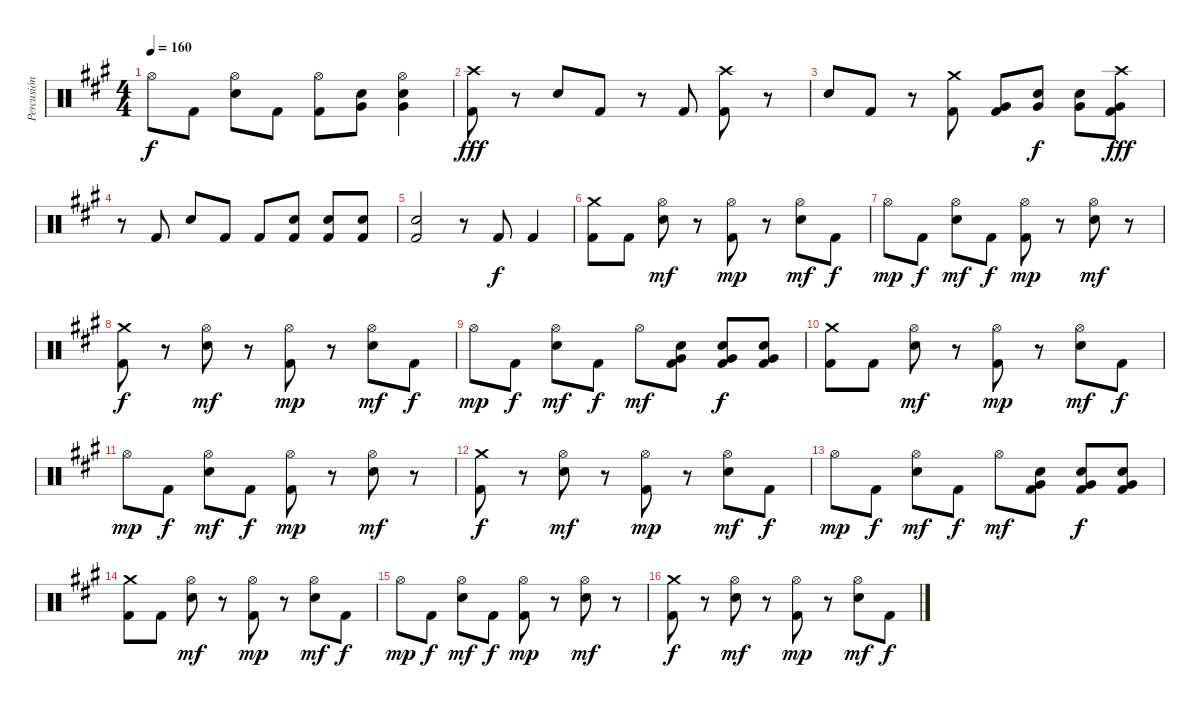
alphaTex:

\track ("Percusión" "Percusión") {instrument percussion}
\staff {score}
\articulation defaults
\ts (4 4)
\tempo 160
\clef neutral
\ks a "Hi-Hat (open)".8{dy f} "Kick (hit) 2".8
("Hi-Hat (open)" "Electric Snare (hit)").8 "Kick (hit) 2".8 ("Hi-Hat (open)" "Kick (hit) 2").8 ("Very Low Tom (hit)" "Electric Snare (hit)").8 ("Very Low Tom (hit)" "Hi-Hat (open)" "Electric Snare (hit)").4 |
("Crash high (hit)" "Kick (hit) 2").8{dy fff} r.8 "Electric Snare (hit)".8 "Kick (hit) 2".8 r.8 "Kick (hit) 2".8 ("Crash high (hit)" "Kick (hit) 2").8 r.8 |
"Electric Snare (hit)".8 "Kick (hit) 2".8 r.8 ("Crash medium (hit)" "Kick (hit) 2").8 ("Very Low Tom (hit)" "Kick (hit) 2").8 ("Very Low Tom (hit)" "Electric Snare (hit)").8{dy f} ("Very Low Tom (hit)" "Electric Snare (hit)").8 ("Crash high (hit)" "Very Low Tom (hit)" "Kick (hit) 2").8{dy fff} |
r.8 "Kick (hit) 2".8 "Electric Snare (hit)".8 "Kick (hit) 2".8 "Kick (hit) 2".8 ("Electric Snare (hit)" "Kick (hit) 2").8 ("Electric Snare (hit)" "Kick (hit) 2").8 ("Electric Snare (hit)" "Kick (hit) 2").8 |
("Electric Snare (hit)" "Kick (hit) 2").2 r.8 "Kick (hit) 2".8{dy f} "Kick (hit) 2".4 |
("Crash medium (hit)" "Kick (hit) 2").8 "Kick (hit) 2".8 ("Hi-Hat (open)" "Electric Snare (hit)").8{dy mf} r.8 ("Hi-Hat (open)" "Kick (hit) 2").8{dy mp} r.8 ("Hi-Hat (open)" "Electric Snare (hit)").8{dy mf} "Kick (hit) 2".8{dy f} |
"Hi-Hat (open)".8{dy mp} "Kick (hit) 2".8{dy f} ("Hi-Hat (open)" "Electric Snare (hit)").8{dy mf} "Kick (hit) 2".8{dy f} ("Hi-Hat (open)" "Kick (hit) 2").8{dy mp} r.8 ("Hi-Hat (open)" "Electric Snare (hit)").8{dy mf} r.8 |
("Crash medium (hit)" "Kick (hit) 2").8{dy f} r.8 ("Hi-Hat (open)" "Electric Snare (hit)").8{dy mf} r.8 ("Hi-Hat (open)" "Kick (hit) 2").8{dy mp} r.8 ("Hi-Hat (open)" "Electric Snare (hit)").8{dy mf} "Kick (hit) 2".8{dy f} |
"Hi-Hat (open)".8{dy mp} "Kick (hit) 2".8{dy f} ("Hi-Hat (open)" "Electric Snare (hit)").8{dy mf} "Kick (hit) 2".8{dy f} "Hi-Hat (open)".8{dy mf} ("Very Low Tom (hit)" "Electric Snare (hit)" "Kick (hit) 2").8 ("Very Low Tom (hit)" "Electric Snare (hit)" "Kick (hit) 2").8{dy f} ("Very Low Tom (hit)" "Electric Snare (hit)" "Kick (hit) 2").8 |
("Crash medium (hit)" "Kick (hit) 2").8 "Kick (hit) 2".8 ("Hi-Hat (open)" "Electric Snare (hit)").8{dy mf} r.8 ("Hi-Hat (open)" "Kick (hit) 2").8{dy mp} r.8 ("Hi-Hat (open)" "Electric Snare (hit)").8{dy mf} "Kick (hit) 2".8{dy f} |
"Hi-Hat (open)".8{dy mp} "Kick (hit) 2".8{dy f} ("Hi-Hat (open)" "Electric Snare (hit)").8{dy mf} "Kick (hit) 2".8{dy f} ("Hi-Hat (open)" "Kick (hit) 2").8{dy mp} r.8 ("Hi-Hat (open)" "Electric Snare (hit)").8{dy mf} r.8 |
("Crash medium (hit)" "Kick (hit) 2").8{dy f} r.8 ("Hi-Hat (open)" "Electric Snare (hit)").8{dy mf} r.8 ("Hi-Hat (open)" "Kick (hit) 2").8{dy mp} r.8 ("Hi-Hat (open)" "Electric Snare (hit)").8{dy mf} "Kick (hit) 2".8{dy f} |
"Hi-Hat (open)".8{dy mp} "Kick (hit) 2".8{dy f} ("Hi-Hat (open)" "Electric Snare (hit)").8{dy mf} "Kick (hit) 2".8{dy f} "Hi-Hat (open)".8{dy mf} ("Very Low Tom (hit)" "Electric Snare (hit)" "Kick (hit) 2").8 ("Very Low Tom (hit)" "Electric Snare (hit)" "Kick (hit) 2").8{dy f} ("Very Low Tom (hit)" "Electric Snare (hit)" "Kick (hit) 2").8 |
("Crash medium (hit)" "Kick (hit) 2").8 "Kick (hit) 2".8 ("Hi-Hat (open)" "Electric Snare (hit)").8{dy mf} r.8 ("Hi-Hat (open)" "Kick (hit) 2").8{dy mp} r.8 ("Hi-Hat (open)" "Electric Snare (hit)").8{dy mf} "Kick (hit) 2".8{dy f} |
"Hi-Hat (open)".8{dy mp} "Kick (hit) 2".8{dy f} ("Hi-Hat (open)" "Electric Snare (hit)").8{dy mf} "Kick (hit) 2".8{dy f} ("Hi-Hat (open)" "Kick (hit) 2").8{dy mp} r.8 ("Hi-Hat (open)" "Electric Snare (hit)").8{dy mf} r.8 |
("Crash medium (hit)" "Kick (hit) 2").8{dy f} r.8 ("Hi-Hat (open)" "Electric Snare (hit)").8{dy mf} r.8 ("Hi-Hat (open)" "Kick (hit) 2").8{dy mp} r.8 ("Hi-Hat (open)" "Electric Snare (hit)").8{dy mf} "Kick (hit) 2".8{dy f}
